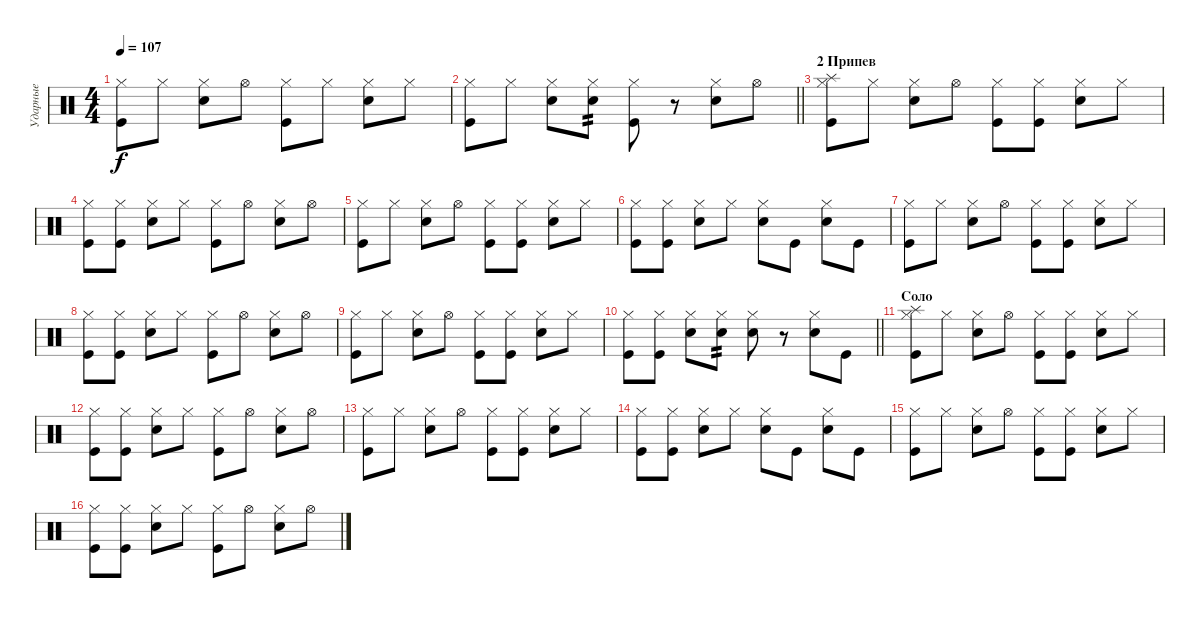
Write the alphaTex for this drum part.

\track ("Ударные" "Ударные") {instrument percussion}
\staff {score}
\articulation defaults
\ts (4 4)
\tempo 107
\clef neutral
\ks c
("Hi-Hat (closed)" "Kick (hit)").8{dy f} "Hi-Hat (closed)".8 ("Hi-Hat (closed)" "Electric Snare (hit)").8 "Hi-Hat (open)".8 ("Hi-Hat (closed)" "Kick (hit)").8 "Hi-Hat (closed)".8 ("Hi-Hat (closed)" "Electric Snare (hit)").8 "Hi-Hat (closed)".8 |
\barLineRight lightlight
("Hi-Hat (closed)" "Kick (hit)").8 "Hi-Hat (closed)".8 ("Hi-Hat (closed)" "Electric Snare (hit)").8 ("Hi-Hat (closed)" "Electric Snare (hit)").8{tp 2} ("Hi-Hat (closed)" "Kick (hit)").8 r.8 ("Hi-Hat (closed)" "Electric Snare (hit)").8 "Hi-Hat (open)".8 |
\section ("" "2 Припев")
("Hi-Hat (closed)" "Splash (hit)" "Kick (hit)").8 "Hi-Hat (closed)".8 ("Hi-Hat (closed)" "Electric Snare (hit)").8 "Hi-Hat (open)".8 ("Hi-Hat (closed)" "Kick (hit)").8 ("Hi-Hat (closed)" "Kick (hit)").8 ("Hi-Hat (closed)" "Electric Snare (hit)").8 "Hi-Hat (closed)".8 |
("Hi-Hat (closed)" "Kick (hit)").8 ("Hi-Hat (closed)" "Kick (hit)").8 ("Hi-Hat (closed)" "Electric Snare (hit)").8 "Hi-Hat (closed)".8 ("Hi-Hat (closed)" "Kick (hit)").8 "Hi-Hat (open)".8 ("Hi-Hat (closed)" "Electric Snare (hit)").8 "Hi-Hat (open)".8 |
("Hi-Hat (closed)" "Kick (hit)").8 "Hi-Hat (closed)".8 ("Hi-Hat (closed)" "Electric Snare (hit)").8 "Hi-Hat (open)".8 ("Hi-Hat (closed)" "Kick (hit)").8 ("Hi-Hat (closed)" "Kick (hit)").8 ("Hi-Hat (closed)" "Electric Snare (hit)").8 "Hi-Hat (closed)".8 |
("Hi-Hat (closed)" "Kick (hit)").8 ("Hi-Hat (closed)" "Kick (hit)").8 ("Hi-Hat (closed)" "Electric Snare (hit)").8 "Hi-Hat (closed)".8 ("Hi-Hat (closed)" "Electric Snare (hit)").8 "Kick (hit)".8 ("Hi-Hat (closed)" "Electric Snare (hit)").8 "Kick (hit)".8 |
("Hi-Hat (closed)" "Kick (hit)").8 "Hi-Hat (closed)".8 ("Hi-Hat (closed)" "Electric Snare (hit)").8 "Hi-Hat (open)".8 ("Hi-Hat (closed)" "Kick (hit)").8 ("Hi-Hat (closed)" "Kick (hit)").8 ("Hi-Hat (closed)" "Electric Snare (hit)").8 "Hi-Hat (closed)".8 |
("Hi-Hat (closed)" "Kick (hit)").8 ("Hi-Hat (closed)" "Kick (hit)").8 ("Hi-Hat (closed)" "Electric Snare (hit)").8 "Hi-Hat (closed)".8 ("Hi-Hat (closed)" "Kick (hit)").8 "Hi-Hat (open)".8 ("Hi-Hat (closed)" "Electric Snare (hit)").8 "Hi-Hat (open)".8 |
("Hi-Hat (closed)" "Kick (hit)").8 "Hi-Hat (closed)".8 ("Hi-Hat (closed)" "Electric Snare (hit)").8 "Hi-Hat (open)".8 ("Hi-Hat (closed)" "Kick (hit)").8 ("Hi-Hat (closed)" "Kick (hit)").8 ("Hi-Hat (closed)" "Electric Snare (hit)").8 "Hi-Hat (closed)".8 |
\barLineRight lightlight
("Hi-Hat (closed)" "Kick (hit)").8 ("Hi-Hat (closed)" "Kick (hit)").8 ("Hi-Hat (closed)" "Electric Snare (hit)").8 ("Hi-Hat (closed)" "Electric Snare (hit)").8{tp 2} ("Hi-Hat (closed)" "Electric Snare (hit)").8 r.8 ("Hi-Hat (closed)" "Electric Snare (hit)").8 "Kick (hit)".8 |
\section ("" "Соло")
("Hi-Hat (closed)" "Splash (hit)" "Kick (hit)").8 "Hi-Hat (closed)".8 ("Hi-Hat (closed)" "Electric Snare (hit)").8 "Hi-Hat (open)".8 ("Hi-Hat (closed)" "Kick (hit)").8 ("Hi-Hat (closed)" "Kick (hit)").8 ("Hi-Hat (closed)" "Electric Snare (hit)").8 "Hi-Hat (closed)".8 |
("Hi-Hat (closed)" "Kick (hit)").8 ("Hi-Hat (closed)" "Kick (hit)").8 ("Hi-Hat (closed)" "Electric Snare (hit)").8 "Hi-Hat (closed)".8 ("Hi-Hat (closed)" "Kick (hit)").8 "Hi-Hat (open)".8 ("Hi-Hat (closed)" "Electric Snare (hit)").8 "Hi-Hat (open)".8 |
("Hi-Hat (closed)" "Kick (hit)").8 "Hi-Hat (closed)".8 ("Hi-Hat (closed)" "Electric Snare (hit)").8 "Hi-Hat (open)".8 ("Hi-Hat (closed)" "Kick (hit)").8 ("Hi-Hat (closed)" "Kick (hit)").8 ("Hi-Hat (closed)" "Electric Snare (hit)").8 "Hi-Hat (closed)".8 |
("Hi-Hat (closed)" "Kick (hit)").8 ("Hi-Hat (closed)" "Kick (hit)").8 ("Hi-Hat (closed)" "Electric Snare (hit)").8 "Hi-Hat (closed)".8 ("Hi-Hat (closed)" "Electric Snare (hit)").8 "Kick (hit)".8 ("Hi-Hat (closed)" "Electric Snare (hit)").8 "Kick (hit)".8 |
("Hi-Hat (closed)" "Kick (hit)").8 "Hi-Hat (closed)".8 ("Hi-Hat (closed)" "Electric Snare (hit)").8 "Hi-Hat (open)".8 ("Hi-Hat (closed)" "Kick (hit)").8 ("Hi-Hat (closed)" "Kick (hit)").8 ("Hi-Hat (closed)" "Electric Snare (hit)").8 "Hi-Hat (closed)".8 |
("Hi-Hat (closed)" "Kick (hit)").8 ("Hi-Hat (closed)" "Kick (hit)").8 ("Hi-Hat (closed)" "Electric Snare (hit)").8 "Hi-Hat (closed)".8 ("Hi-Hat (closed)" "Kick (hit)").8 "Hi-Hat (open)".8 ("Hi-Hat (closed)" "Electric Snare (hit)").8 "Hi-Hat (open)".8
